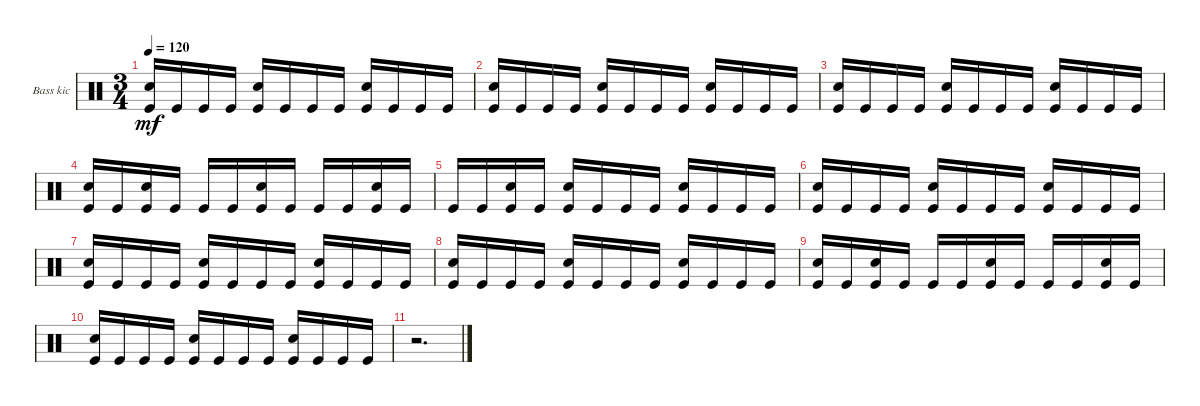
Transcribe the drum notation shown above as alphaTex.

\bracketExtendMode groupsimilarinstruments
\firstSystemTrackNameOrientation horizontal
\otherSystemsTrackNameOrientation horizontal
\track ("Bass kick" "Bass kic") {multiBarRest instrument percussion}
\staff {score}
\articulation defaults
\ts (3 4)
\tempo 120
\clef neutral
\scale
0.333333
\ks c
("Kick (hit)" "Snare (hit) 2").16{dy mf} "Kick (hit)".16 "Kick (hit)".16 "Kick (hit)".16 ("Kick (hit)" "Snare (hit) 2").16 "Kick (hit)".16 "Kick (hit)".16 "Kick (hit)".16 ("Kick (hit)" "Snare (hit) 2").16 "Kick (hit)".16 "Kick (hit)".16 "Kick (hit)".16 |
\scale
0.333333 ("Kick (hit)" "Snare (hit) 2").16 "Kick (hit)".16 "Kick (hit)".16 "Kick (hit)".16 ("Kick (hit)" "Snare (hit) 2").16 "Kick (hit)".16 "Kick (hit)".16 "Kick (hit)".16 ("Kick (hit)" "Snare (hit) 2").16 "Kick (hit)".16 "Kick (hit)".16 "Kick (hit)".16 |
\scale
0.333333 ("Kick (hit)" "Snare (hit) 2").16 "Kick (hit)".16 "Kick (hit)".16 "Kick (hit)".16 ("Kick (hit)" "Snare (hit) 2").16 "Kick (hit)".16 "Kick (hit)".16 "Kick (hit)".16 ("Kick (hit)" "Snare (hit) 2").16 "Kick (hit)".16 "Kick (hit)".16 "Kick (hit)".16 |
\scale
0.333333 ("Kick (hit)" "Snare (hit) 2").16 "Kick (hit)".16 ("Kick (hit)" "Snare (hit) 2").16 "Kick (hit)".16 "Kick (hit)".16 "Kick (hit)".16 ("Kick (hit)" "Snare (hit) 2").16 "Kick (hit)".16 "Kick (hit)".16 "Kick (hit)".16 ("Kick (hit)" "Snare (hit) 2").16 "Kick (hit)".16 |
\scale
0.333333 "Kick (hit)".16 "Kick (hit)".16 ("Kick (hit)" "Snare (hit) 2").16 "Kick (hit)".16 ("Kick (hit)" "Snare (hit) 2").16 "Kick (hit)".16 "Kick (hit)".16 "Kick (hit)".16 ("Kick (hit)" "Snare (hit) 2").16 "Kick (hit)".16 "Kick (hit)".16 "Kick (hit)".16 |
\scale
0.333333 ("Kick (hit)" "Snare (hit) 2").16 "Kick (hit)".16 "Kick (hit)".16 "Kick (hit)".16 ("Kick (hit)" "Snare (hit) 2").16 "Kick (hit)".16 "Kick (hit)".16 "Kick (hit)".16 ("Kick (hit)" "Snare (hit) 2").16 "Kick (hit)".16 "Kick (hit)".16 "Kick (hit)".16 |
\scale
0.333333 ("Kick (hit)" "Snare (hit) 2").16 "Kick (hit)".16 "Kick (hit)".16 "Kick (hit)".16 ("Kick (hit)" "Snare (hit) 2").16 "Kick (hit)".16 "Kick (hit)".16 "Kick (hit)".16 ("Kick (hit)" "Snare (hit) 2").16 "Kick (hit)".16 "Kick (hit)".16 "Kick (hit)".16 |
\scale
0.333333 ("Kick (hit)" "Snare (hit) 2").16 "Kick (hit)".16 "Kick (hit)".16 "Kick (hit)".16 ("Kick (hit)" "Snare (hit) 2").16 "Kick (hit)".16 "Kick (hit)".16 "Kick (hit)".16 ("Kick (hit)" "Snare (hit) 2").16 "Kick (hit)".16 "Kick (hit)".16 "Kick (hit)".16 |
\scale
0.333333 ("Kick (hit)" "Snare (hit) 2").16 "Kick (hit)".16 ("Kick (hit)" "Snare (hit) 2").16 "Kick (hit)".16 "Kick (hit)".16 "Kick (hit)".16 ("Kick (hit)" "Snare (hit) 2").16 "Kick (hit)".16 "Kick (hit)".16 "Kick (hit)".16 ("Kick (hit)" "Snare (hit) 2").16 "Kick (hit)".16 |
\scale
0.333333 ("Kick (hit)" "Snare (hit) 2").16 "Kick (hit)".16 "Kick (hit)".16 "Kick (hit)".16 ("Kick (hit)" "Snare (hit) 2").16 "Kick (hit)".16 "Kick (hit)".16 "Kick (hit)".16 ("Kick (hit)" "Snare (hit) 2").16 "Kick (hit)".16 "Kick (hit)".16 "Kick (hit)".16 |
r.2{d}
